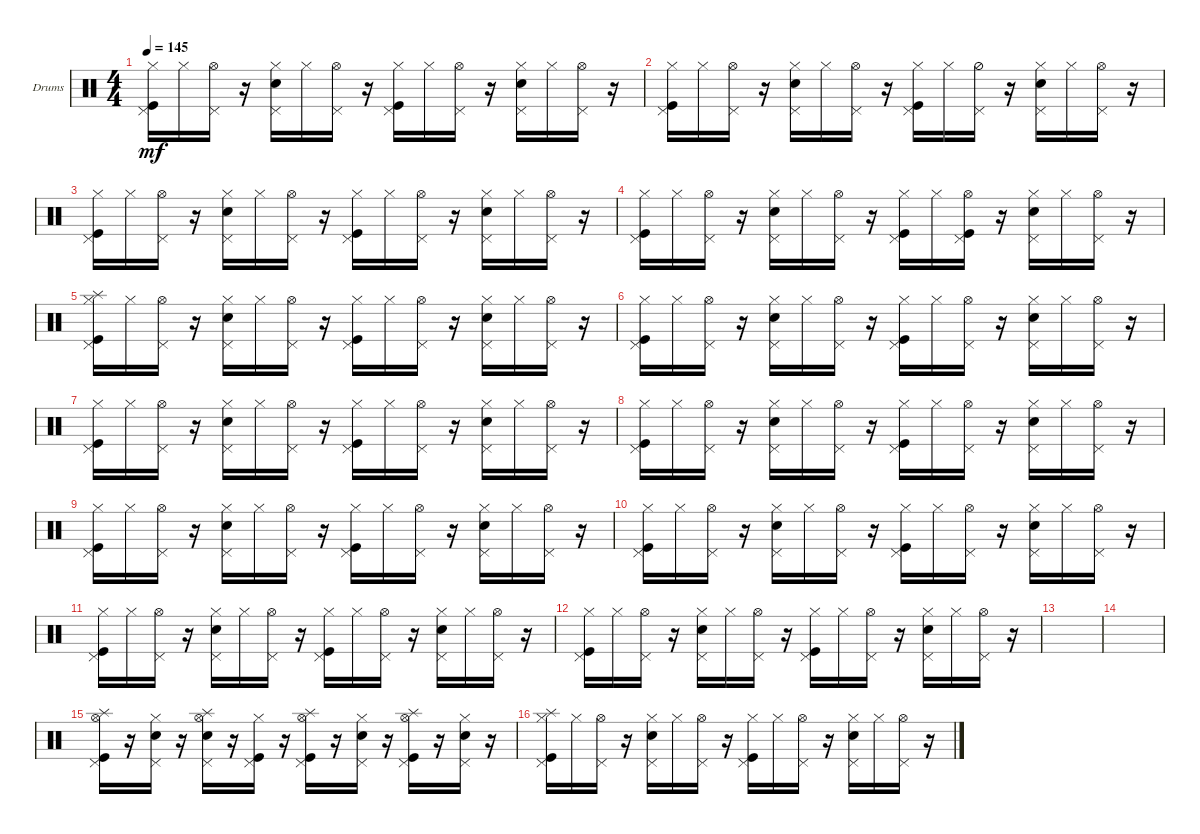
\bracketExtendMode groupsimilarinstruments
\firstSystemTrackNameOrientation horizontal
\otherSystemsTrackNameOrientation horizontal
\track ("Drumkit" "Drums") {solo instrument percussion}
\staff {score}
\articulation defaults
\ts (4 4)
\tempo 145
\clef neutral
\ks c
("Kick (hit)" "Hi-Hat (closed)" "Pedal Hi-Hat (hit)").16{dy mf} "Hi-Hat (closed)".16 ("Hi-Hat (open)" "Pedal Hi-Hat (hit)").16 r.16 ("Snare (hit) 2" "Pedal Hi-Hat (hit)" "Hi-Hat (closed)").16 "Hi-Hat (closed)".16 ("Hi-Hat (open)" "Pedal Hi-Hat (hit)").16 r.16 ("Kick (hit)" "Hi-Hat (closed)" "Pedal Hi-Hat (hit)").16 "Hi-Hat (closed)".16 ("Hi-Hat (open)" "Pedal Hi-Hat (hit)").16 r.16 ("Snare (hit) 2" "Pedal Hi-Hat (hit)" "Hi-Hat (closed)").16 "Hi-Hat (closed)".16 ("Hi-Hat (open)" "Pedal Hi-Hat (hit)").16 r.16 |
("Kick (hit)" "Hi-Hat (closed)" "Pedal Hi-Hat (hit)").16 "Hi-Hat (closed)".16 ("Hi-Hat (open)" "Pedal Hi-Hat (hit)").16 r.16 ("Snare (hit) 2" "Pedal Hi-Hat (hit)" "Hi-Hat (closed)").16 "Hi-Hat (closed)".16 ("Hi-Hat (open)" "Pedal Hi-Hat (hit)").16 r.16 ("Kick (hit)" "Hi-Hat (closed)" "Pedal Hi-Hat (hit)").16 "Hi-Hat (closed)".16 ("Hi-Hat (half)" "Pedal Hi-Hat (hit)").16 r.16 ("Snare (hit) 2" "Pedal Hi-Hat (hit)" "Hi-Hat (closed)").16 "Hi-Hat (closed)".16 ("Hi-Hat (open)" "Pedal Hi-Hat (hit)").16 r.16 |
("Kick (hit)" "Hi-Hat (closed)" "Pedal Hi-Hat (hit)").16 "Hi-Hat (closed)".16 ("Hi-Hat (open)" "Pedal Hi-Hat (hit)").16 r.16 ("Snare (hit) 2" "Pedal Hi-Hat (hit)" "Hi-Hat (closed)").16 "Hi-Hat (closed)".16 ("Hi-Hat (open)" "Pedal Hi-Hat (hit)").16 r.16 ("Kick (hit)" "Hi-Hat (closed)" "Pedal Hi-Hat (hit)").16 "Hi-Hat (closed)".16 ("Hi-Hat (open)" "Pedal Hi-Hat (hit)").16 r.16 ("Snare (hit) 2" "Pedal Hi-Hat (hit)" "Hi-Hat (closed)").16 "Hi-Hat (closed)".16 ("Hi-Hat (open)" "Pedal Hi-Hat (hit)").16 r.16 |
("Kick (hit)" "Hi-Hat (closed)" "Pedal Hi-Hat (hit)").16 "Hi-Hat (closed)".16 ("Hi-Hat (open)" "Pedal Hi-Hat (hit)").16 r.16 ("Snare (hit) 2" "Pedal Hi-Hat (hit)" "Hi-Hat (closed)").16 "Hi-Hat (closed)".16 ("Hi-Hat (open)" "Pedal Hi-Hat (hit)").16 r.16 ("Kick (hit)" "Hi-Hat (closed)" "Pedal Hi-Hat (hit)").16 "Hi-Hat (closed)".16 ("Hi-Hat (open)" "Pedal Hi-Hat (hit)" "Kick (hit)").16 r.16 ("Snare (hit) 2" "Pedal Hi-Hat (hit)" "Hi-Hat (closed)").16 "Hi-Hat (closed)".16 ("Hi-Hat (open)" "Pedal Hi-Hat (hit)").16 r.16 |
("Kick (hit)" "Hi-Hat (closed)" "Pedal Hi-Hat (hit)" "Splash (hit)").16 "Hi-Hat (closed)".16 ("Hi-Hat (open)" "Pedal Hi-Hat (hit)").16 r.16 ("Snare (hit) 2" "Pedal Hi-Hat (hit)" "Hi-Hat (closed)").16 "Hi-Hat (closed)".16 ("Hi-Hat (open)" "Pedal Hi-Hat (hit)").16 r.16 ("Kick (hit)" "Hi-Hat (closed)" "Pedal Hi-Hat (hit)").16 "Hi-Hat (closed)".16 ("Hi-Hat (open)" "Pedal Hi-Hat (hit)").16 r.16 ("Snare (hit) 2" "Pedal Hi-Hat (hit)" "Hi-Hat (closed)").16 "Hi-Hat (closed)".16 ("Hi-Hat (open)" "Pedal Hi-Hat (hit)").16 r.16 |
("Kick (hit)" "Hi-Hat (closed)" "Pedal Hi-Hat (hit)").16 "Hi-Hat (closed)".16 ("Hi-Hat (open)" "Pedal Hi-Hat (hit)").16 r.16 ("Snare (hit) 2" "Pedal Hi-Hat (hit)" "Hi-Hat (closed)").16 "Hi-Hat (closed)".16 ("Hi-Hat (open)" "Pedal Hi-Hat (hit)").16 r.16 ("Kick (hit)" "Hi-Hat (closed)" "Pedal Hi-Hat (hit)").16 "Hi-Hat (closed)".16 ("Hi-Hat (open)" "Pedal Hi-Hat (hit)").16 r.16 ("Snare (hit) 2" "Pedal Hi-Hat (hit)" "Hi-Hat (closed)").16 "Hi-Hat (closed)".16 ("Hi-Hat (open)" "Pedal Hi-Hat (hit)").16 r.16 |
("Kick (hit)" "Hi-Hat (closed)" "Pedal Hi-Hat (hit)").16 "Hi-Hat (closed)".16 ("Hi-Hat (open)" "Pedal Hi-Hat (hit)").16 r.16 ("Snare (hit) 2" "Pedal Hi-Hat (hit)" "Hi-Hat (closed)").16 "Hi-Hat (closed)".16 ("Hi-Hat (open)" "Pedal Hi-Hat (hit)").16 r.16 ("Kick (hit)" "Hi-Hat (closed)" "Pedal Hi-Hat (hit)").16 "Hi-Hat (closed)".16 ("Hi-Hat (open)" "Pedal Hi-Hat (hit)").16 r.16 ("Snare (hit) 2" "Pedal Hi-Hat (hit)" "Hi-Hat (closed)").16 "Hi-Hat (closed)".16 ("Hi-Hat (open)" "Pedal Hi-Hat (hit)").16 r.16 |
("Kick (hit)" "Hi-Hat (closed)" "Pedal Hi-Hat (hit)").16 "Hi-Hat (closed)".16 ("Hi-Hat (open)" "Pedal Hi-Hat (hit)").16 r.16 ("Snare (hit) 2" "Pedal Hi-Hat (hit)" "Hi-Hat (closed)").16 "Hi-Hat (closed)".16 ("Hi-Hat (open)" "Pedal Hi-Hat (hit)").16 r.16 ("Kick (hit)" "Hi-Hat (closed)" "Pedal Hi-Hat (hit)").16 "Hi-Hat (closed)".16 ("Hi-Hat (open)" "Pedal Hi-Hat (hit)").16 r.16 ("Snare (hit) 2" "Pedal Hi-Hat (hit)" "Hi-Hat (closed)").16 "Hi-Hat (closed)".16 ("Hi-Hat (open)" "Pedal Hi-Hat (hit)").16 r.16 |
("Kick (hit)" "Hi-Hat (closed)" "Pedal Hi-Hat (hit)").16 "Hi-Hat (closed)".16 ("Hi-Hat (open)" "Pedal Hi-Hat (hit)").16 r.16 ("Snare (hit) 2" "Pedal Hi-Hat (hit)" "Hi-Hat (closed)").16 "Hi-Hat (closed)".16 ("Hi-Hat (open)" "Pedal Hi-Hat (hit)").16 r.16 ("Kick (hit)" "Hi-Hat (closed)" "Pedal Hi-Hat (hit)").16 "Hi-Hat (closed)".16 ("Hi-Hat (open)" "Pedal Hi-Hat (hit)").16 r.16 ("Snare (hit) 2" "Pedal Hi-Hat (hit)" "Hi-Hat (closed)").16 "Hi-Hat (closed)".16 ("Hi-Hat (open)" "Pedal Hi-Hat (hit)").16 r.16 |
("Kick (hit)" "Hi-Hat (closed)" "Pedal Hi-Hat (hit)").16 "Hi-Hat (closed)".16 ("Hi-Hat (open)" "Pedal Hi-Hat (hit)").16 r.16 ("Snare (hit) 2" "Pedal Hi-Hat (hit)" "Hi-Hat (closed)").16 "Hi-Hat (closed)".16 ("Hi-Hat (open)" "Pedal Hi-Hat (hit)").16 r.16 ("Kick (hit)" "Hi-Hat (closed)" "Pedal Hi-Hat (hit)").16 "Hi-Hat (closed)".16 ("Hi-Hat (open)" "Pedal Hi-Hat (hit)").16 r.16 ("Snare (hit) 2" "Pedal Hi-Hat (hit)" "Hi-Hat (closed)").16 "Hi-Hat (closed)".16 ("Hi-Hat (open)" "Pedal Hi-Hat (hit)").16 r.16 |
("Kick (hit)" "Hi-Hat (closed)" "Pedal Hi-Hat (hit)").16 "Hi-Hat (closed)".16 ("Hi-Hat (open)" "Pedal Hi-Hat (hit)").16 r.16 ("Snare (hit) 2" "Pedal Hi-Hat (hit)" "Hi-Hat (closed)").16 "Hi-Hat (closed)".16 ("Hi-Hat (open)" "Pedal Hi-Hat (hit)").16 r.16 ("Kick (hit)" "Hi-Hat (closed)" "Pedal Hi-Hat (hit)").16 "Hi-Hat (closed)".16 ("Hi-Hat (open)" "Pedal Hi-Hat (hit)").16 r.16 ("Snare (hit) 2" "Pedal Hi-Hat (hit)" "Hi-Hat (closed)").16 "Hi-Hat (closed)".16 ("Hi-Hat (open)" "Pedal Hi-Hat (hit)").16 r.16 |
("Kick (hit)" "Hi-Hat (closed)" "Pedal Hi-Hat (hit)").16 "Hi-Hat (closed)".16 ("Hi-Hat (open)" "Pedal Hi-Hat (hit)").16 r.16 ("Snare (hit) 2" "Pedal Hi-Hat (hit)" "Hi-Hat (closed)").16 "Hi-Hat (closed)".16 ("Hi-Hat (open)" "Pedal Hi-Hat (hit)").16 r.16 ("Kick (hit)" "Hi-Hat (closed)" "Pedal Hi-Hat (hit)").16 "Hi-Hat (closed)".16 ("Hi-Hat (open)" "Pedal Hi-Hat (hit)").16 r.16 ("Snare (hit) 2" "Pedal Hi-Hat (hit)" "Hi-Hat (closed)").16 "Hi-Hat (closed)".16 ("Hi-Hat (open)" "Pedal Hi-Hat (hit)").16 r.16 |
|
|
("Kick (hit)" "Hi-Hat (open)" "Pedal Hi-Hat (hit)" "Splash (hit)").16 r.16 ("Hi-Hat (closed)" "Snare (hit) 2" "Pedal Hi-Hat (hit)").16 r.16 ("Snare (hit) 2" "Hi-Hat (open)" "Pedal Hi-Hat (hit)" "Splash (hit)").16 r.16 ("Hi-Hat (closed)" "Pedal Hi-Hat (hit)" "Kick (hit)").16 r.16 ("Kick (hit)" "Hi-Hat (open)" "Pedal Hi-Hat (hit)" "Splash (hit)").16 r.16 ("Hi-Hat (closed)" "Snare (hit) 2" "Pedal Hi-Hat (hit)").16 r.16 ("Hi-Hat (open)" "Kick (hit)" "Pedal Hi-Hat (hit)" "Splash (hit)").16 r.16 ("Hi-Hat (closed)" "Snare (hit) 2" "Pedal Hi-Hat (hit)").16 r.16 |
("Pedal Hi-Hat (hit)" "Kick (hit)" "Hi-Hat (closed)" "Splash (hit)").16 "Hi-Hat (closed)".16 ("Hi-Hat (open)" "Pedal Hi-Hat (hit)").16 r.16 ("Snare (hit) 2" "Pedal Hi-Hat (hit)" "Hi-Hat (closed)").16 "Hi-Hat (closed)".16 ("Hi-Hat (open)" "Pedal Hi-Hat (hit)").16 r.16 ("Kick (hit)" "Hi-Hat (closed)" "Pedal Hi-Hat (hit)").16 "Hi-Hat (closed)".16 ("Hi-Hat (open)" "Pedal Hi-Hat (hit)").16 r.16 ("Snare (hit) 2" "Pedal Hi-Hat (hit)" "Hi-Hat (closed)").16 "Hi-Hat (closed)".16 ("Hi-Hat (open)" "Pedal Hi-Hat (hit)").16 r.16
